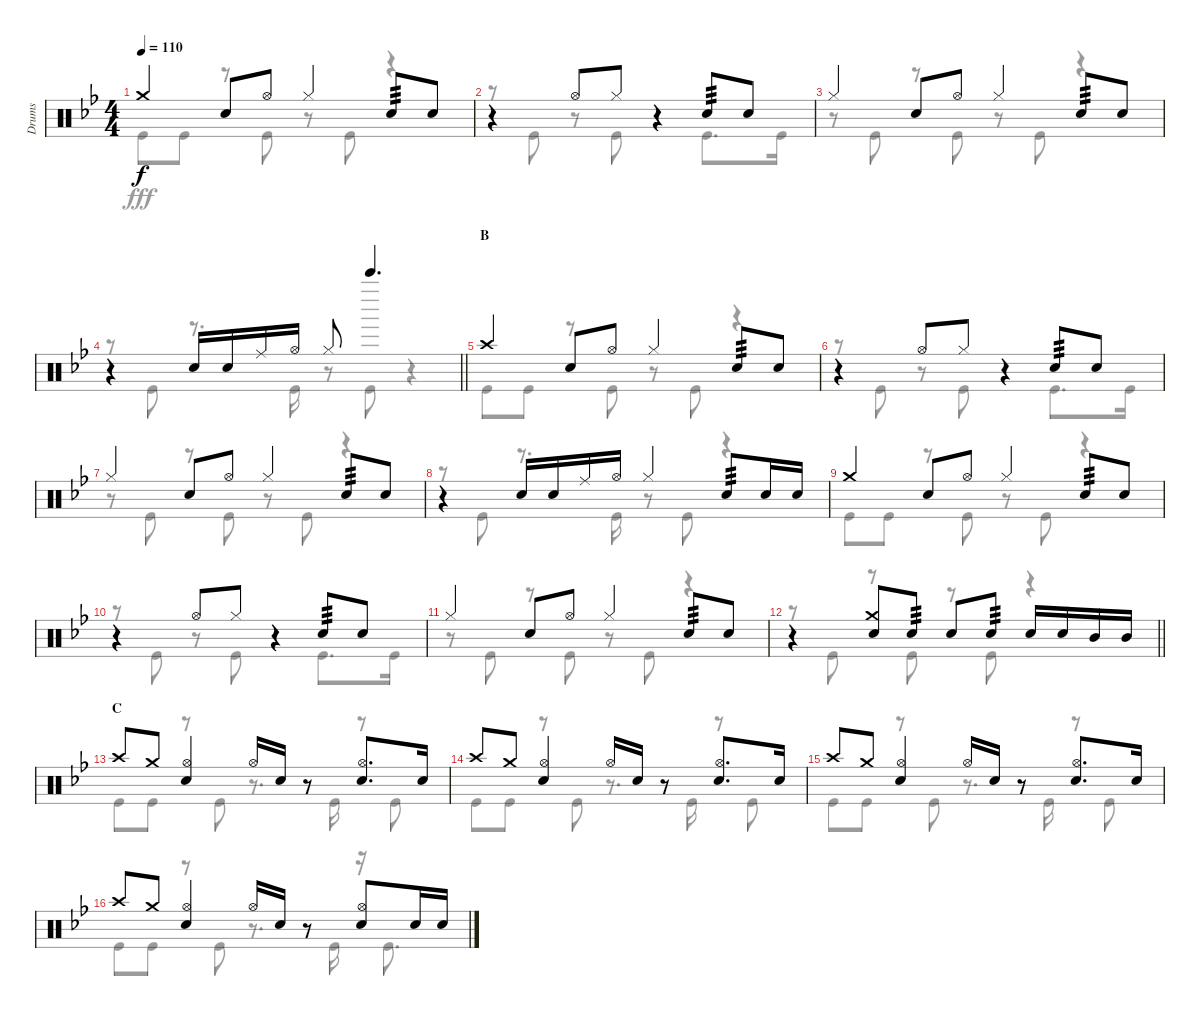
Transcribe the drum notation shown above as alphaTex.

\track ("Drums" "Drums") {instrument percussion}
\staff {score}
\articulation defaults
\voice
\ts (4 4)
\tempo 110
\clef neutral
\ks bb "Crash medium (hit)".4{dy f} "Snare (hit) 2".8 "Hi-Hat (open)".8 "Hi-Hat (closed)".4 "Snare (hit) 2".8{tp 3} "Snare (hit) 2".8
|
r.4 "Hi-Hat (open)".8 "Hi-Hat (closed)".8 r.4 "Snare (hit) 2".8{tp 3} "Snare (hit) 2".8 |
"Hi-Hat (closed)".4 "Snare (hit) 2".8 "Hi-Hat (open)".8 "Hi-Hat (closed)".4 "Snare (hit) 2".8{tp 3} "Snare (hit) 2".8 |
\barLineRight lightlight
r.4 "Snare (hit) 2".16 "Snare (hit) 2".16 "Ride (middle)".16 "Hi-Hat (open)".16 "Hi-Hat (closed)".8 "Bell Tree (hit)".4{d} |
\section ("" "B")
"Crash high (hit)".4 "Snare (hit) 2".8 "Hi-Hat (open)".8 "Hi-Hat (closed)".4 "Snare (hit) 2".8{tp 3} "Snare (hit) 2".8 |
r.4 "Hi-Hat (open)".8 "Hi-Hat (closed)".8 r.4 "Snare (hit) 2".8{tp 3} "Snare (hit) 2".8 |
"Hi-Hat (closed)".4 "Snare (hit) 2".8 "Hi-Hat (open)".8 "Hi-Hat (closed)".4 "Snare (hit) 2".8{tp 3} "Snare (hit) 2".8 |
r.4 "Snare (hit) 2".16 "Snare (hit) 2".16 "Ride (middle)".16 "Hi-Hat (open)".16 "Hi-Hat (closed)".4 "Snare (hit) 2".8{tp 3} "Snare (hit) 2".16 "Snare (hit) 2".16 |
"Crash medium (hit)".4 "Snare (hit) 2".8 "Hi-Hat (open)".8 "Hi-Hat (closed)".4 "Snare (hit) 2".8{tp 3} "Snare (hit) 2".8 |
r.4 "Hi-Hat (open)".8 "Hi-Hat (closed)".8 r.4 "Snare (hit) 2".8{tp 3} "Snare (hit) 2".8 |
"Hi-Hat (closed)".4 "Snare (hit) 2".8 "Hi-Hat (open)".8 "Hi-Hat (closed)".4 "Snare (hit) 2".8{tp 3} "Snare (hit) 2".8 |
\barLineRight lightlight
r.4 ("Crash medium (hit)" "Snare (hit) 2").8 "Snare (hit) 2".8{tp 3} "Snare (hit) 2".8 "Snare (hit) 2".8{tp 3} "Snare (hit) 2".16 "Snare (hit) 2".16 "Mid Tom (hit)".16 "Mid Tom (hit)".16 |
\section ("" "C")
"Crash high (hit)".8 "Crash medium (hit)".8 ("Hi-Hat (open)" "Snare (hit) 2").4 "Hi-Hat (open)".16 "Snare (hit) 2".16 r.8 ("Hi-Hat (open)" "Snare (hit) 2").8{d} "Snare (hit) 2".16 |
"Crash high (hit)".8 "Crash medium (hit)".8 ("Hi-Hat (open)" "Snare (hit) 2").4 "Hi-Hat (open)".16 "Snare (hit) 2".16 r.8 ("Hi-Hat (open)" "Snare (hit) 2").8{d} "Snare (hit) 2".16 |
"Crash high (hit)".8 "Crash medium (hit)".8 ("Hi-Hat (open)" "Snare (hit) 2").4 "Hi-Hat (open)".16 "Snare (hit) 2".16 r.8 ("Hi-Hat (open)" "Snare (hit) 2").8{d} "Snare (hit) 2".16 |
"Crash high (hit)".8 "Crash medium (hit)".8 ("Hi-Hat (open)" "Snare (hit) 2").4 "Hi-Hat (open)".16 "Snare (hit) 2".16 r.8 ("Hi-Hat (open)" "Snare (hit) 2").8 "Snare (hit) 2".16 "Snare (hit) 2".16
\voice
\clef neutral
\ottava regular
\simile none
\ks bb "Kick (hit)".8{dy fff} "Kick (hit)".8
r.8 "Kick (hit)".8 r.8 "Kick (hit)".8 r.4 |
r.8 "Kick (hit)".8 r.8 "Kick (hit)".8 r.4 "Kick (hit)".8{d} "Kick (hit)".16 |
r.8 "Kick (hit)".8 r.8 "Kick (hit)".8 r.8 "Kick (hit)".8 r.4 |
\barLineRight lightlight
r.8 "Kick (hit)".8 r.8{d} "Kick (hit)".16 r.8 "Kick (hit)".8 r.4 |
"Kick (hit)".8 "Kick (hit)".8 r.8 "Kick (hit)".8 r.8 "Kick (hit)".8 r.4 |
r.8 "Kick (hit)".8 r.8 "Kick (hit)".8 r.4 "Kick (hit)".8{d} "Kick (hit)".16 |
r.8 "Kick (hit)".8 r.8 "Kick (hit)".8 r.8 "Kick (hit)".8 r.4 |
r.8 "Kick (hit)".8 r.8{d} "Kick (hit)".16 r.8 "Kick (hit)".8 r.4 |
"Kick (hit)".8 "Kick (hit)".8 r.8 "Kick (hit)".8 r.8 "Kick (hit)".8 r.4 |
r.8 "Kick (hit)".8 r.8 "Kick (hit)".8 r.4 "Kick (hit)".8{d} "Kick (hit)".16 |
r.8 "Kick (hit)".8 r.8 "Kick (hit)".8 r.8 "Kick (hit)".8 r.4 |
\barLineRight lightlight
r.8 "Kick (hit)".8 r.8 "Kick (hit)".8 r.8 "Kick (hit)".8 r.4 |
"Kick (hit)".8 "Kick (hit)".8 r.8 "Kick (hit)".8 r.8{d} "Kick (hit)".16 r.8 "Kick (hit)".8 |
"Kick (hit)".8 "Kick (hit)".8 r.8 "Kick (hit)".8 r.8{d} "Kick (hit)".16 r.8 "Kick (hit)".8 |
"Kick (hit)".8 "Kick (hit)".8 r.8 "Kick (hit)".8 r.8{d} "Kick (hit)".16 r.8 "Kick (hit)".8 |
"Kick (hit)".8 "Kick (hit)".8 r.8 "Kick (hit)".8 r.8{d} "Kick (hit)".16 r.16 "Kick (hit)".8{d}
